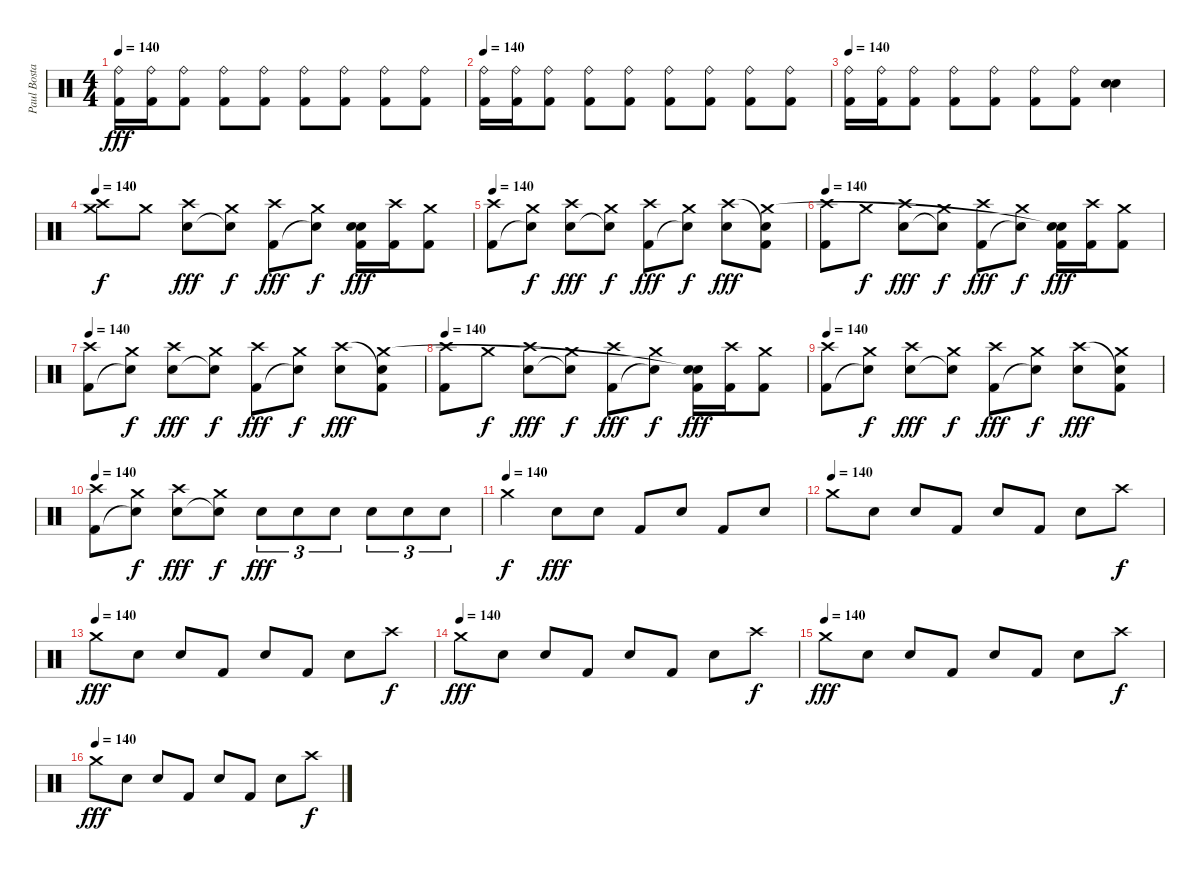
\track ("Paul Bostaph" "Paul Bosta") {instrument percussion}
\staff {score}
\articulation defaults
\ts (4 4)
\tempo 140
\clef neutral
\ks c
("Kick (hit) 2" "Ride (bell)").16{dy fff} ("Kick (hit) 2" "Ride (bell)").16 ("Kick (hit) 2" "Ride (bell)").8 ("Kick (hit) 2" "Ride (bell)").8 ("Kick (hit) 2" "Ride (bell)").8 ("Kick (hit) 2" "Ride (bell)").8 ("Kick (hit) 2" "Ride (bell)").8 ("Kick (hit) 2" "Ride (bell)").8 ("Kick (hit) 2" "Ride (bell)").8 |
\tempo 140
("Kick (hit) 2" "Ride (bell)").16 ("Kick (hit) 2" "Ride (bell)").16 ("Kick (hit) 2" "Ride (bell)").8 ("Kick (hit) 2" "Ride (bell)").8 ("Kick (hit) 2" "Ride (bell)").8 ("Kick (hit) 2" "Ride (bell)").8 ("Kick (hit) 2" "Ride (bell)").8 ("Kick (hit) 2" "Ride (bell)").8 ("Kick (hit) 2" "Ride (bell)").8 |
\tempo 140
("Kick (hit) 2" "Ride (bell)").16 ("Kick (hit) 2" "Ride (bell)").16 ("Kick (hit) 2" "Ride (bell)").8 ("Kick (hit) 2" "Ride (bell)").8 ("Kick (hit) 2" "Ride (bell)").8 ("Kick (hit) 2" "Ride (bell)").8 ("Kick (hit) 2" "Ride (bell)").8 ("Snare (hit) 2" "Snare (hit) 2").4 |
\tempo 140
("Crash medium (hit)" "Crash high (hit)").8{dy f} "Crash medium (hit)".8 ("Snare (hit) 2" "Crash high (hit)").8{dy fff} ("Snare (hit)"{t} "Crash medium (hit)").8{dy f} ("Kick (hit) 2" "Crash high (hit)").8{dy fff} ("Snare (hit)"{t} "Crash medium (hit)").8{dy f} ("Kick (hit) 2" "Snare (hit) 2" "Snare (hit)").16{dy fff} ("Kick (hit) 2" "Crash high (hit)").16 ("Kick (hit) 2" "Crash medium (hit)").8 |
\tempo 140
("Kick (hit) 2" "Crash high (hit)").8 ("Snare (hit)"{t} "Crash medium (hit)").8{dy f} ("Snare (hit) 2" "Crash high (hit)").8{dy fff} ("Snare (hit)"{t} "Crash medium (hit)").8{dy f} ("Kick (hit) 2" "Crash high (hit)").8{dy fff} ("Snare (hit)"{t} "Crash medium (hit)").8{dy f} ("Snare (hit) 2" "Crash high (hit)").8{dy fff} ("Kick (hit) 2" "Snare (hit)"{t} "Crash medium (hit)").8 |
\tempo 140
("Kick (hit) 2" "Crash high (hit)").8 "Crash medium (hit)".8{dy f} ("Snare (hit) 2" "Crash high (hit)").8{dy fff} ("Snare (hit)"{t} "Crash medium (hit)").8{dy f} ("Kick (hit) 2" "Crash high (hit)").8{dy fff} ("Snare (hit)"{t} "Crash medium (hit)").8{dy f} ("Kick (hit) 2" "Snare (hit) 2" "Snare (hit)"{t}).16{dy fff} ("Kick (hit) 2" "Crash high (hit)").16 ("Kick (hit) 2" "Crash medium (hit)").8 |
\tempo 140
("Kick (hit) 2" "Crash high (hit)").8 ("Snare (hit)"{t} "Crash medium (hit)").8{dy f} ("Snare (hit) 2" "Crash high (hit)").8{dy fff} ("Snare (hit)"{t} "Crash medium (hit)").8{dy f} ("Kick (hit) 2" "Crash high (hit)").8{dy fff} ("Snare (hit)"{t} "Crash medium (hit)").8{dy f} ("Snare (hit) 2" "Crash high (hit)").8{dy fff} ("Kick (hit) 2" "Snare (hit)"{t} "Crash medium (hit)").8 |
\tempo 140
("Kick (hit) 2" "Crash high (hit)").8 "Crash medium (hit)".8{dy f} ("Snare (hit) 2" "Crash high (hit)").8{dy fff} ("Snare (hit)"{t} "Crash medium (hit)").8{dy f} ("Kick (hit) 2" "Crash high (hit)").8{dy fff} ("Snare (hit)"{t} "Crash medium (hit)").8{dy f} ("Kick (hit) 2" "Snare (hit) 2" "Snare (hit)"{t}).16{dy fff} ("Kick (hit) 2" "Crash high (hit)").16 ("Kick (hit) 2" "Crash medium (hit)").8 |
\tempo 140
("Kick (hit) 2" "Crash high (hit)").8 ("Snare (hit)"{t} "Crash medium (hit)").8{dy f} ("Snare (hit) 2" "Crash high (hit)").8{dy fff} ("Snare (hit)"{t} "Crash medium (hit)").8{dy f} ("Kick (hit) 2" "Crash high (hit)").8{dy fff} ("Snare (hit)"{t} "Crash medium (hit)").8{dy f} ("Snare (hit) 2" "Crash high (hit)").8{dy fff} ("Kick (hit) 2" "Snare (hit)"{t} "Crash medium (hit)").8 |
\tempo 140
("Kick (hit) 2" "Crash high (hit)").8 ("Snare (hit)"{t} "Crash medium (hit)").8{dy f} ("Snare (hit) 2" "Crash high (hit)").8{dy fff} ("Snare (hit)"{t} "Crash medium (hit)").8{dy f} "Snare (hit) 2".8{tu (3 2) dy fff} "Snare (hit) 2".8{tu (3 2)} "Snare (hit) 2".8{tu (3 2)} "Snare (hit) 2".8{tu (3 2)} "Snare (hit) 2".8{tu (3 2)} "Snare (hit) 2".8{tu (3 2)} |
\tempo (140)
"Crash medium (hit)".4{dy f} "Snare (hit) 2".8{dy fff} "Snare (hit) 2".8 "Kick (hit) 2".8 "Snare (hit) 2".8 "Kick (hit) 2".8 "Snare (hit) 2".8 |
\tempo (140)
"Crash medium (hit)".8 "Snare (hit) 2".8 "Snare (hit) 2".8 "Kick (hit) 2".8 "Snare (hit) 2".8 "Kick (hit) 2".8 "Snare (hit) 2".8 "Crash high (hit)".8{dy f} |
\tempo (140)
"Crash medium (hit)".8{dy fff} "Snare (hit) 2".8 "Snare (hit) 2".8 "Kick (hit) 2".8 "Snare (hit) 2".8 "Kick (hit) 2".8 "Snare (hit) 2".8 "Crash high (hit)".8{dy f} |
\tempo (140)
"Crash medium (hit)".8{dy fff} "Snare (hit) 2".8 "Snare (hit) 2".8 "Kick (hit) 2".8 "Snare (hit) 2".8 "Kick (hit) 2".8 "Snare (hit) 2".8 "Crash high (hit)".8{dy f} |
\tempo (140)
"Crash medium (hit)".8{dy fff} "Snare (hit) 2".8 "Snare (hit) 2".8 "Kick (hit) 2".8 "Snare (hit) 2".8 "Kick (hit) 2".8 "Snare (hit) 2".8 "Crash high (hit)".8{dy f} |
\tempo (140)
"Crash medium (hit)".8{dy fff} "Snare (hit) 2".8 "Snare (hit) 2".8 "Kick (hit) 2".8 "Snare (hit) 2".8 "Kick (hit) 2".8 "Snare (hit) 2".8 "Crash high (hit)".8{dy f}
